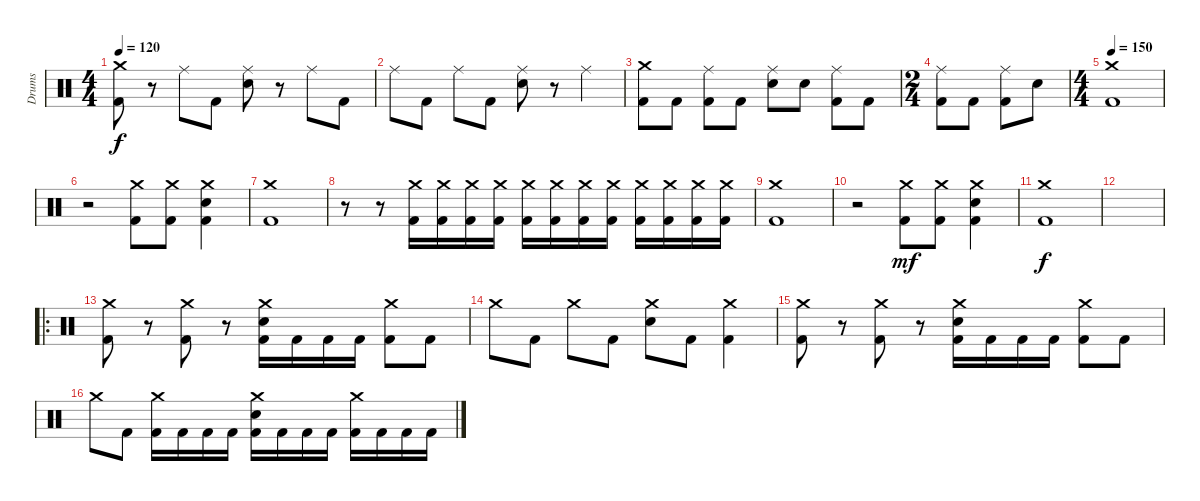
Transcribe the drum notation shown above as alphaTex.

\track ("Drums" "Drums") {instrument percussion}
\staff {score}
\articulation defaults
\ts (4 4)
\tempo 120
\clef neutral
\ks c
("Crash medium (hit)" "Kick (hit) 2").8{dy f} r.8 "Ride (middle)".8 "Kick (hit) 2".8 ("Ride (middle)" "Electric Snare (hit)").8 r.8 "Ride (middle)".8 "Kick (hit) 2".8 |
"Ride (middle)".8 "Kick (hit) 2".8 "Ride (middle)".8 "Kick (hit) 2".8 ("Ride (middle)" "Electric Snare (hit)").8 r.8 "Ride (middle)".4 |
("Crash medium (hit)" "Kick (hit) 2").8 "Kick (hit) 2".8 ("Ride (middle)" "Kick (hit) 2").8 "Kick (hit) 2".8 ("Ride (middle)" "Electric Snare (hit)").8 "Electric Snare (hit)".8 ("Ride (middle)" "Kick (hit) 2").8 "Kick (hit) 2".8 |
\ts (2 4)
("Ride (middle)" "Kick (hit) 2").8 "Kick (hit) 2".8 ("Ride (middle)" "Kick (hit) 2").8 "Electric Snare (hit)".8 |
\ts (4 4)
\tempo 150
("Kick (hit) 2" "Crash medium (hit)").1 |
r.2 ("Crash medium (hit)" "Kick (hit) 2").8 ("Crash medium (hit)" "Kick (hit) 2").8 ("Crash medium (hit)" "Electric Snare (hit)" "Kick (hit) 2").4 |
("Crash medium (hit)" "Kick (hit) 2").1 |
r.8 r.8 ("Crash medium (hit)" "Kick (hit) 2").16 ("Crash medium (hit)" "Kick (hit) 2").16 ("Crash medium (hit)" "Kick (hit) 2").16 ("Crash medium (hit)" "Kick (hit) 2").16 ("Crash medium (hit)" "Kick (hit) 2").16 ("Crash medium (hit)" "Kick (hit) 2").16 ("Crash medium (hit)" "Kick (hit) 2").16 ("Crash medium (hit)" "Kick (hit) 2").16 ("Crash medium (hit)" "Kick (hit) 2").16 ("Crash medium (hit)" "Kick (hit) 2").16 ("Crash medium (hit)" "Kick (hit) 2").16 ("Crash medium (hit)" "Kick (hit) 2").16 |
("Crash medium (hit)" "Kick (hit) 2").1 |
r.2 ("Crash medium (hit)" "Kick (hit) 2").8{dy mf} ("Crash medium (hit)" "Kick (hit) 2").8 ("Crash medium (hit)" "Electric Snare (hit)" "Kick (hit) 2").4 |
("Crash medium (hit)" "Kick (hit) 2").1{dy f} |
|
\ro
("Crash medium (hit)" "Kick (hit) 2").8 r.8 ("Crash medium (hit)" "Kick (hit) 2").8 r.8 ("Crash medium (hit)" "Electric Snare (hit)" "Kick (hit) 2").16 "Kick (hit) 2".16 "Kick (hit) 2".16 "Kick (hit) 2".16 ("Crash medium (hit)" "Kick (hit) 2").8 "Kick (hit) 2".8 |
"Crash medium (hit)".8 "Kick (hit) 2".8 "Crash medium (hit)".8 "Kick (hit) 2".8 ("Crash medium (hit)" "Electric Snare (hit)").8 "Kick (hit) 2".8 ("Crash medium (hit)" "Kick (hit) 2").4 |
("Crash medium (hit)" "Kick (hit) 2").8 r.8 ("Crash medium (hit)" "Kick (hit) 2").8 r.8 ("Crash medium (hit)" "Electric Snare (hit)" "Kick (hit) 2").16 "Kick (hit) 2".16 "Kick (hit) 2".16 "Kick (hit) 2".16 ("Crash medium (hit)" "Kick (hit) 2").8 "Kick (hit) 2".8 |
"Crash medium (hit)".8 "Kick (hit) 2".8 ("Crash medium (hit)" "Kick (hit) 2").16 "Kick (hit) 2".16 "Kick (hit) 2".16 "Kick (hit) 2".16 ("Crash medium (hit)" "Electric Snare (hit)" "Kick (hit) 2").16 "Kick (hit) 2".16 "Kick (hit) 2".16 "Kick (hit) 2".16 ("Crash medium (hit)" "Kick (hit) 2").16 "Kick (hit) 2".16 "Kick (hit) 2".16 "Kick (hit) 2".16
